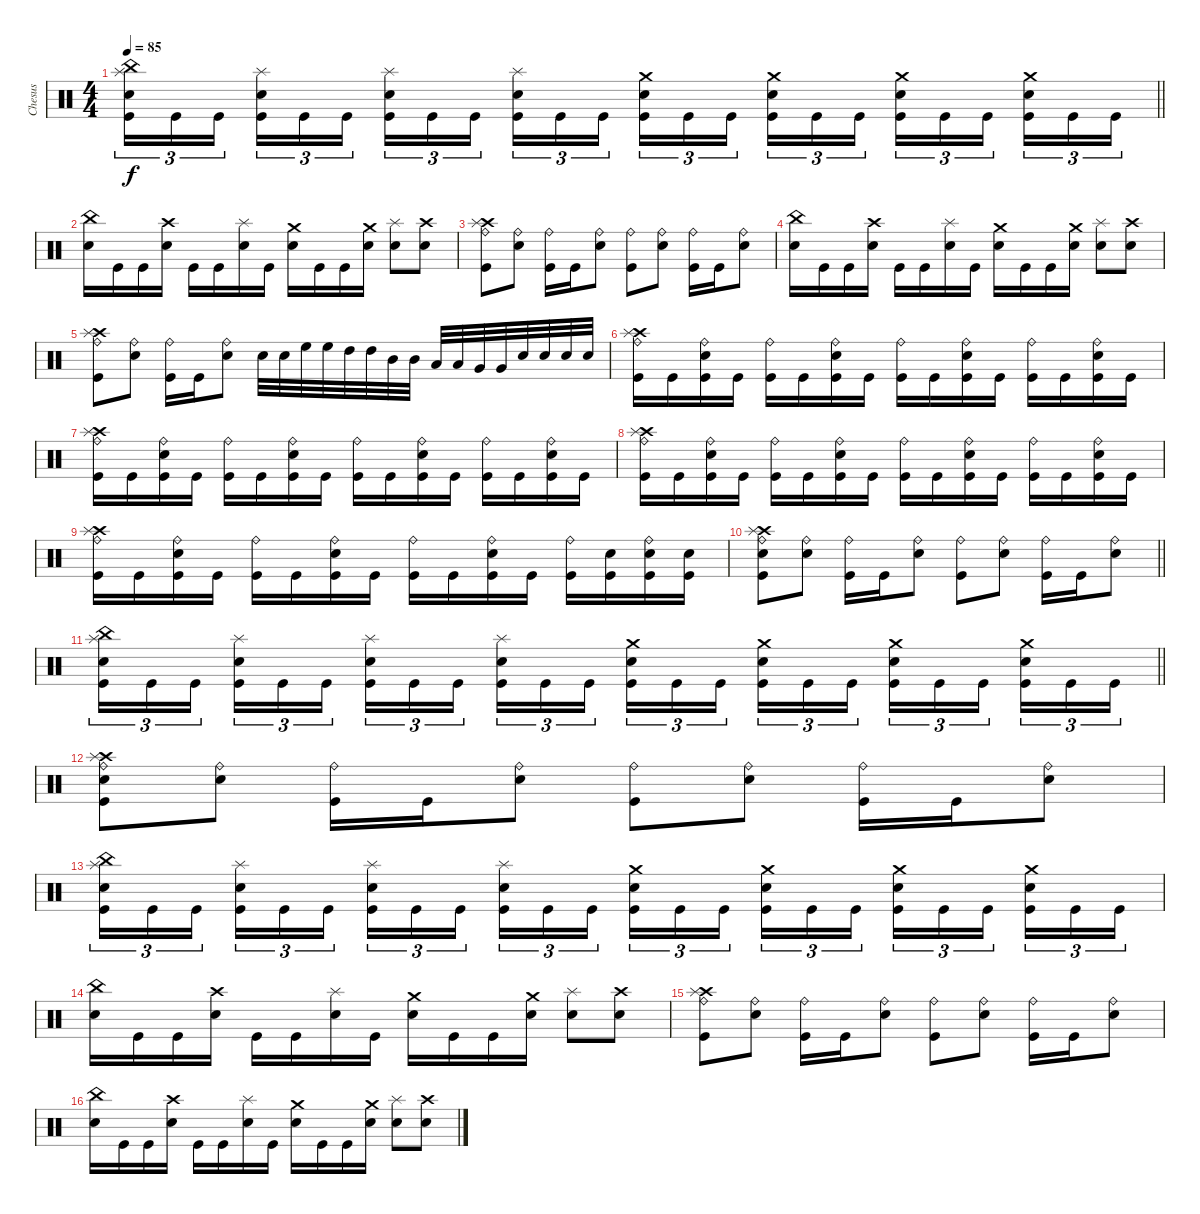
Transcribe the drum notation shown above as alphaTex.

\track ("Chesus" "Chesus") {instrument percussion}
\staff {score}
\articulation defaults
\ts (4 4)
\tempo 85
\clef neutral
\barLineRight lightlight
\ks c
("Splash (hit)" "China (hit)" "Snare (hit) 2" "Kick (hit)").16{tu (3 2) dy f} "Kick (hit)".16{tu (3 2)} "Kick (hit)".16{tu (3 2)} ("Splash (hit)" "Snare (hit) 2" "Kick (hit)").16{tu (3 2)} "Kick (hit)".16{tu (3 2)} "Kick (hit)".16{tu (3 2)} ("Splash (hit)" "Snare (hit) 2" "Kick (hit)").16{tu (3 2)} "Kick (hit)".16{tu (3 2)} "Kick (hit)".16{tu (3 2)} ("Splash (hit)" "Snare (hit) 2" "Kick (hit)").16{tu (3 2)} "Kick (hit)".16{tu (3 2)} "Kick (hit)".16{tu (3 2)} ("Crash medium (hit)" "Snare (hit) 2" "Kick (hit)").16{tu (3 2)} "Kick (hit)".16{tu (3 2)} "Kick (hit)".16{tu (3 2)} ("Crash medium (hit)" "Snare (hit) 2" "Kick (hit)").16{tu (3 2)} "Kick (hit)".16{tu (3 2)} "Kick (hit)".16{tu (3 2)} ("Crash medium (hit)" "Snare (hit) 2" "Kick (hit)").16{tu (3 2)} "Kick (hit)".16{tu (3 2)} "Kick (hit)".16{tu (3 2)} ("Crash medium (hit)" "Snare (hit) 2" "Kick (hit)").16{tu (3 2)} "Kick (hit)".16{tu (3 2)} "Kick (hit)".16{tu (3 2)} |
("China (hit)" "Snare (hit) 2").16 "Kick (hit)".16 "Kick (hit)".16 ("Crash high (hit)" "Snare (hit) 2").16 "Kick (hit)".16 "Kick (hit)".16 ("Splash (hit)" "Snare (hit) 2").16 "Kick (hit)".16 ("Crash medium (hit)" "Snare (hit) 2").16 "Kick (hit)".16 "Kick (hit)".16 ("Crash medium (hit)" "Snare (hit) 2").16 ("Splash (hit)" "Snare (hit) 2").8 ("Crash high (hit)" "Snare (hit) 2").8 |
("Crash high (hit)" "Splash (hit)" "Ride (bell)" "Kick (hit)").8 ("Ride (bell)" "Snare (hit) 2").8 ("Ride (bell)" "Kick (hit)").16 "Kick (hit)".16 ("Ride (bell)" "Snare (hit) 2").8 ("Ride (bell)" "Kick (hit)").8 ("Ride (bell)" "Snare (hit) 2").8 ("Ride (bell)" "Kick (hit)").16 "Kick (hit)".16 ("Ride (bell)" "Snare (hit) 2").8 |
("China (hit)" "Snare (hit) 2").16 "Kick (hit)".16 "Kick (hit)".16 ("Crash high (hit)" "Snare (hit) 2").16 "Kick (hit)".16 "Kick (hit)".16 ("Splash (hit)" "Snare (hit) 2").16 "Kick (hit)".16 ("Crash medium (hit)" "Snare (hit) 2").16 "Kick (hit)".16 "Kick (hit)".16 ("Crash medium (hit)" "Snare (hit) 2").16 ("Splash (hit)" "Snare (hit) 2").8 ("Crash high (hit)" "Snare (hit) 2").8 |
("Crash high (hit)" "Splash (hit)" "Ride (bell)" "Kick (hit)").8 ("Ride (bell)" "Snare (hit) 2").8 ("Ride (bell)" "Kick (hit)").16 "Kick (hit)".16 ("Ride (bell)" "Snare (hit) 2").8 "Snare (hit) 2".32 "Snare (hit) 2".32 "High Floor Tom (hit)".32 "High Floor Tom (hit)".32 "High Tom (hit)".32 "High Tom (hit)".32 "Mid Tom (hit)".32 "Mid Tom (hit)".32 "Low Tom (hit)".32 "Low Tom (hit)".32 "Very Low Tom (hit)".32 "Very Low Tom (hit)".32 "Snare (hit) 2".32 "Snare (hit) 2".32 "Snare (hit) 2".32 "Snare (hit) 2".32 |
("Crash high (hit)" "Splash (hit)" "Ride (bell)" "Kick (hit)").16 "Kick (hit)".16 ("Ride (bell)" "Snare (hit) 2" "Kick (hit)").16 "Kick (hit)".16 ("Ride (bell)" "Kick (hit)").16 "Kick (hit)".16 ("Ride (bell)" "Snare (hit) 2" "Kick (hit)").16 "Kick (hit)".16 ("Ride (bell)" "Kick (hit)").16 "Kick (hit)".16 ("Ride (bell)" "Snare (hit) 2" "Kick (hit)").16 "Kick (hit)".16 ("Ride (bell)" "Kick (hit)").16 "Kick (hit)".16 ("Ride (bell)" "Snare (hit) 2" "Kick (hit)").16 "Kick (hit)".16 |
("Crash high (hit)" "Splash (hit)" "Ride (bell)" "Kick (hit)").16 "Kick (hit)".16 ("Ride (bell)" "Snare (hit) 2" "Kick (hit)").16 "Kick (hit)".16 ("Ride (bell)" "Kick (hit)").16 "Kick (hit)".16 ("Ride (bell)" "Snare (hit) 2" "Kick (hit)").16 "Kick (hit)".16 ("Ride (bell)" "Kick (hit)").16 "Kick (hit)".16 ("Ride (bell)" "Snare (hit) 2" "Kick (hit)").16 "Kick (hit)".16 ("Ride (bell)" "Kick (hit)").16 "Kick (hit)".16 ("Ride (bell)" "Snare (hit) 2" "Kick (hit)").16 "Kick (hit)".16 |
("Crash high (hit)" "Splash (hit)" "Ride (bell)" "Kick (hit)").16 "Kick (hit)".16 ("Ride (bell)" "Snare (hit) 2" "Kick (hit)").16 "Kick (hit)".16 ("Ride (bell)" "Kick (hit)").16 "Kick (hit)".16 ("Ride (bell)" "Snare (hit) 2" "Kick (hit)").16 "Kick (hit)".16 ("Ride (bell)" "Kick (hit)").16 "Kick (hit)".16 ("Ride (bell)" "Snare (hit) 2" "Kick (hit)").16 "Kick (hit)".16 ("Ride (bell)" "Kick (hit)").16 "Kick (hit)".16 ("Ride (bell)" "Snare (hit) 2" "Kick (hit)").16 "Kick (hit)".16 |
("Crash high (hit)" "Splash (hit)" "Ride (bell)" "Kick (hit)").16 "Kick (hit)".16 ("Ride (bell)" "Snare (hit) 2" "Kick (hit)").16 "Kick (hit)".16 ("Ride (bell)" "Kick (hit)").16 "Kick (hit)".16 ("Ride (bell)" "Snare (hit) 2" "Kick (hit)").16 "Kick (hit)".16 ("Ride (bell)" "Kick (hit)").16 "Kick (hit)".16 ("Ride (bell)" "Snare (hit) 2" "Kick (hit)").16 "Kick (hit)".16 ("Ride (bell)" "Kick (hit)").16 ("Snare (hit) 2" "Kick (hit)").16 ("Ride (bell)" "Snare (hit) 2" "Kick (hit)").16 ("Snare (hit) 2" "Kick (hit)").16 |
\barLineRight lightlight
("Crash high (hit)" "Splash (hit)" "Ride (bell)" "Snare (hit) 2" "Kick (hit)").8 ("Ride (bell)" "Snare (hit) 2").8 ("Ride (bell)" "Kick (hit)").16 "Kick (hit)".16 ("Ride (bell)" "Snare (hit) 2").8 ("Ride (bell)" "Kick (hit)").8 ("Ride (bell)" "Snare (hit) 2").8 ("Ride (bell)" "Kick (hit)").16 "Kick (hit)".16 ("Ride (bell)" "Snare (hit) 2").8 |
\barLineRight lightlight
("Splash (hit)" "China (hit)" "Snare (hit) 2" "Kick (hit)").16{tu (3 2)} "Kick (hit)".16{tu (3 2)} "Kick (hit)".16{tu (3 2)} ("Splash (hit)" "Snare (hit) 2" "Kick (hit)").16{tu (3 2)} "Kick (hit)".16{tu (3 2)} "Kick (hit)".16{tu (3 2)} ("Splash (hit)" "Snare (hit) 2" "Kick (hit)").16{tu (3 2)} "Kick (hit)".16{tu (3 2)} "Kick (hit)".16{tu (3 2)} ("Splash (hit)" "Snare (hit) 2" "Kick (hit)").16{tu (3 2)} "Kick (hit)".16{tu (3 2)} "Kick (hit)".16{tu (3 2)} ("Crash medium (hit)" "Snare (hit) 2" "Kick (hit)").16{tu (3 2)} "Kick (hit)".16{tu (3 2)} "Kick (hit)".16{tu (3 2)} ("Crash medium (hit)" "Snare (hit) 2" "Kick (hit)").16{tu (3 2)} "Kick (hit)".16{tu (3 2)} "Kick (hit)".16{tu (3 2)} ("Crash medium (hit)" "Snare (hit) 2" "Kick (hit)").16{tu (3 2)} "Kick (hit)".16{tu (3 2)} "Kick (hit)".16{tu (3 2)} ("Crash medium (hit)" "Snare (hit) 2" "Kick (hit)").16{tu (3 2)} "Kick (hit)".16{tu (3 2)} "Kick (hit)".16{tu (3 2)} |
("Crash high (hit)" "Splash (hit)" "Ride (bell)" "Snare (hit) 2" "Kick (hit)").8 ("Ride (bell)" "Snare (hit) 2").8 ("Ride (bell)" "Kick (hit)").16 "Kick (hit)".16 ("Ride (bell)" "Snare (hit) 2").8 ("Ride (bell)" "Kick (hit)").8 ("Ride (bell)" "Snare (hit) 2").8 ("Ride (bell)" "Kick (hit)").16 "Kick (hit)".16 ("Ride (bell)" "Snare (hit) 2").8 |
("Splash (hit)" "China (hit)" "Snare (hit) 2" "Kick (hit)").16{tu (3 2)} "Kick (hit)".16{tu (3 2)} "Kick (hit)".16{tu (3 2)} ("Splash (hit)" "Snare (hit) 2" "Kick (hit)").16{tu (3 2)} "Kick (hit)".16{tu (3 2)} "Kick (hit)".16{tu (3 2)} ("Splash (hit)" "Snare (hit) 2" "Kick (hit)").16{tu (3 2)} "Kick (hit)".16{tu (3 2)} "Kick (hit)".16{tu (3 2)} ("Splash (hit)" "Snare (hit) 2" "Kick (hit)").16{tu (3 2)} "Kick (hit)".16{tu (3 2)} "Kick (hit)".16{tu (3 2)} ("Crash medium (hit)" "Snare (hit) 2" "Kick (hit)").16{tu (3 2)} "Kick (hit)".16{tu (3 2)} "Kick (hit)".16{tu (3 2)} ("Crash medium (hit)" "Snare (hit) 2" "Kick (hit)").16{tu (3 2)} "Kick (hit)".16{tu (3 2)} "Kick (hit)".16{tu (3 2)} ("Crash medium (hit)" "Snare (hit) 2" "Kick (hit)").16{tu (3 2)} "Kick (hit)".16{tu (3 2)} "Kick (hit)".16{tu (3 2)} ("Crash medium (hit)" "Snare (hit) 2" "Kick (hit)").16{tu (3 2)} "Kick (hit)".16{tu (3 2)} "Kick (hit)".16{tu (3 2)} |
("China (hit)" "Snare (hit) 2").16 "Kick (hit)".16 "Kick (hit)".16 ("Crash high (hit)" "Snare (hit) 2").16 "Kick (hit)".16 "Kick (hit)".16 ("Splash (hit)" "Snare (hit) 2").16 "Kick (hit)".16 ("Crash medium (hit)" "Snare (hit) 2").16 "Kick (hit)".16 "Kick (hit)".16 ("Crash medium (hit)" "Snare (hit) 2").16 ("Splash (hit)" "Snare (hit) 2").8 ("Crash high (hit)" "Snare (hit) 2").8 |
("Crash high (hit)" "Splash (hit)" "Ride (bell)" "Kick (hit)").8 ("Ride (bell)" "Snare (hit) 2").8 ("Ride (bell)" "Kick (hit)").16 "Kick (hit)".16 ("Ride (bell)" "Snare (hit) 2").8 ("Ride (bell)" "Kick (hit)").8 ("Ride (bell)" "Snare (hit) 2").8 ("Ride (bell)" "Kick (hit)").16 "Kick (hit)".16 ("Ride (bell)" "Snare (hit) 2").8 |
("China (hit)" "Snare (hit) 2").16 "Kick (hit)".16 "Kick (hit)".16 ("Crash high (hit)" "Snare (hit) 2").16 "Kick (hit)".16 "Kick (hit)".16 ("Splash (hit)" "Snare (hit) 2").16 "Kick (hit)".16 ("Crash medium (hit)" "Snare (hit) 2").16 "Kick (hit)".16 "Kick (hit)".16 ("Crash medium (hit)" "Snare (hit) 2").16 ("Splash (hit)" "Snare (hit) 2").8 ("Crash high (hit)" "Snare (hit) 2").8
